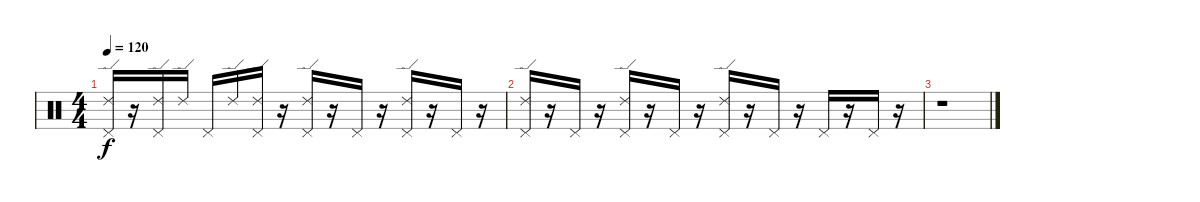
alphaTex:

\track "" {instrument percussion}
\staff {score}
\articulation defaults
\ts (4 4)
\tempo 120
\clef neutral
\ks c
("Pedal Hi-Hat (hit)" "Ride (edge) 2").16{dy f} r.16 ("Pedal Hi-Hat (hit)" "Ride (edge) 2").16 "Ride (edge) 2".16 "Pedal Hi-Hat (hit)".16 "Ride (edge) 2".16 ("Pedal Hi-Hat (hit)" "Ride (edge) 2").16 r.16 ("Pedal Hi-Hat (hit)" "Ride (edge) 2").16 r.16 "Pedal Hi-Hat (hit)".16 r.16 ("Pedal Hi-Hat (hit)" "Ride (edge) 2").16 r.16 "Pedal Hi-Hat (hit)".16 r.16 |
("Pedal Hi-Hat (hit)" "Ride (edge) 2").16 r.16 "Pedal Hi-Hat (hit)".16 r.16 ("Pedal Hi-Hat (hit)" "Ride (edge) 2").16 r.16 "Pedal Hi-Hat (hit)".16 r.16 ("Pedal Hi-Hat (hit)" "Ride (edge) 2").16 r.16 "Pedal Hi-Hat (hit)".16 r.16 "Pedal Hi-Hat (hit)".16 r.16 "Pedal Hi-Hat (hit)".16 r.16 |
r.1
